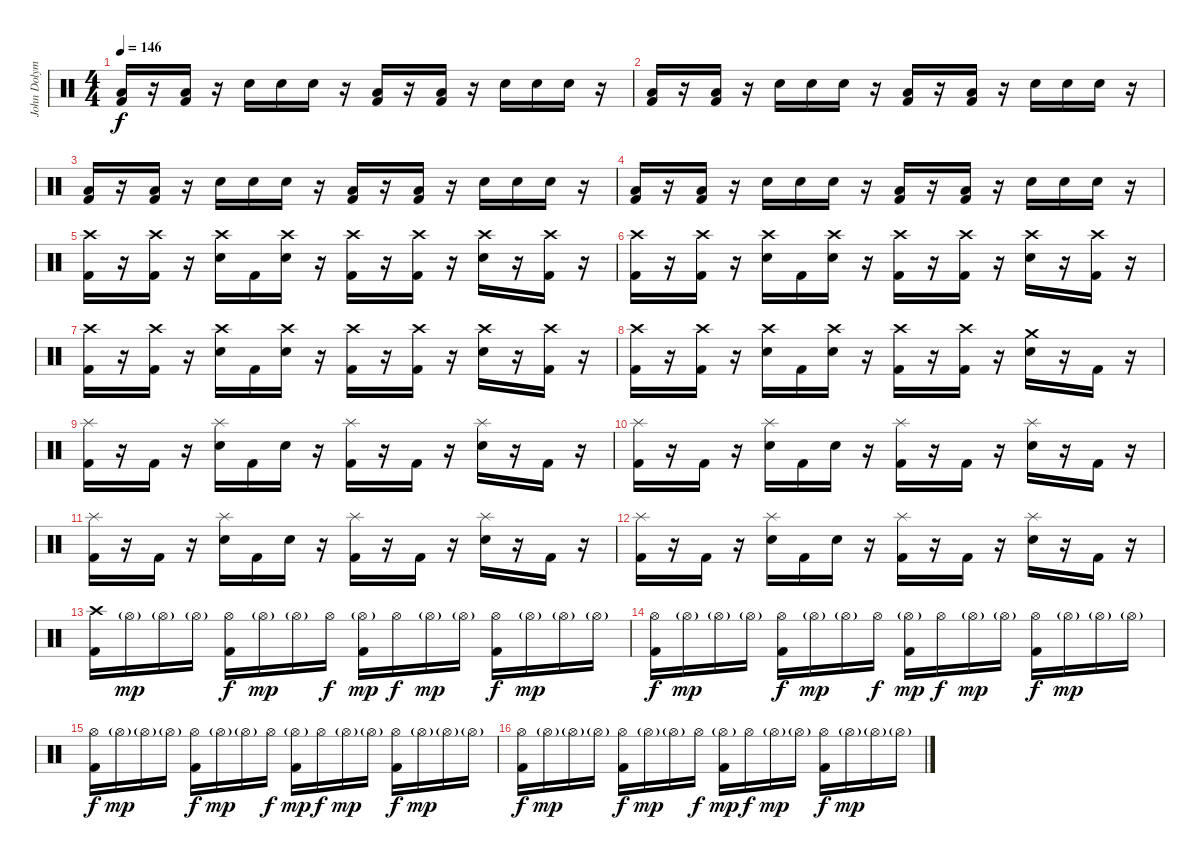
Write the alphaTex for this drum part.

\track ("John Dolyman" "John Dolym") {instrument percussion}
\staff {score}
\articulation defaults
\ts (4 4)
\tempo 146
\clef neutral
\ks c
("Low Floor Tom (hit)" "Kick (hit) 2").16{dy f} r.16 ("Low Floor Tom (hit)" "Kick (hit) 2").16 r.16 "Electric Snare (hit)".16 "Electric Snare (hit)".16 "Electric Snare (hit)".16 r.16 ("Low Floor Tom (hit)" "Kick (hit) 2").16 r.16 ("Low Floor Tom (hit)" "Kick (hit) 2").16 r.16 "Electric Snare (hit)".16 "Electric Snare (hit)".16 "Electric Snare (hit)".16 r.16 |
("Low Floor Tom (hit)" "Kick (hit) 2").16 r.16 ("Low Floor Tom (hit)" "Kick (hit) 2").16 r.16 "Electric Snare (hit)".16 "Electric Snare (hit)".16 "Electric Snare (hit)".16 r.16 ("Low Floor Tom (hit)" "Kick (hit) 2").16 r.16 ("Low Floor Tom (hit)" "Kick (hit) 2").16 r.16 "Electric Snare (hit)".16 "Electric Snare (hit)".16 "Electric Snare (hit)".16 r.16 |
("Low Floor Tom (hit)" "Kick (hit) 2").16 r.16 ("Low Floor Tom (hit)" "Kick (hit) 2").16 r.16 "Electric Snare (hit)".16 "Electric Snare (hit)".16 "Electric Snare (hit)".16 r.16 ("Low Floor Tom (hit)" "Kick (hit) 2").16 r.16 ("Low Floor Tom (hit)" "Kick (hit) 2").16 r.16 "Electric Snare (hit)".16 "Electric Snare (hit)".16 "Electric Snare (hit)".16 r.16 |
("Low Floor Tom (hit)" "Kick (hit) 2").16 r.16 ("Low Floor Tom (hit)" "Kick (hit) 2").16 r.16 "Electric Snare (hit)".16 "Electric Snare (hit)".16 "Electric Snare (hit)".16 r.16 ("Low Floor Tom (hit)" "Kick (hit) 2").16 r.16 ("Low Floor Tom (hit)" "Kick (hit) 2").16 r.16 "Electric Snare (hit)".16 "Electric Snare (hit)".16 "Electric Snare (hit)".16 r.16 |
("Crash high (hit)" "Kick (hit) 2").16 r.16 ("Crash high (hit)" "Kick (hit) 2").16 r.16 ("Crash high (hit)" "Electric Snare (hit)").16 "Kick (hit) 2".16 ("Crash high (hit)" "Electric Snare (hit)").16 r.16 ("Crash high (hit)" "Kick (hit) 2").16 r.16 ("Crash high (hit)" "Kick (hit) 2").16 r.16 ("Crash high (hit)" "Electric Snare (hit)").16 r.16 ("Crash high (hit)" "Kick (hit) 2").16 r.16 |
("Crash high (hit)" "Kick (hit) 2").16 r.16 ("Crash high (hit)" "Kick (hit) 2").16 r.16 ("Crash high (hit)" "Electric Snare (hit)").16 "Kick (hit) 2".16 ("Crash high (hit)" "Electric Snare (hit)").16 r.16 ("Crash high (hit)" "Kick (hit) 2").16 r.16 ("Crash high (hit)" "Kick (hit) 2").16 r.16 ("Crash high (hit)" "Electric Snare (hit)").16 r.16 ("Crash high (hit)" "Kick (hit) 2").16 r.16 |
("Crash high (hit)" "Kick (hit) 2").16 r.16 ("Crash high (hit)" "Kick (hit) 2").16 r.16 ("Crash high (hit)" "Electric Snare (hit)").16 "Kick (hit) 2".16 ("Crash high (hit)" "Electric Snare (hit)").16 r.16 ("Crash high (hit)" "Kick (hit) 2").16 r.16 ("Crash high (hit)" "Kick (hit) 2").16 r.16 ("Crash high (hit)" "Electric Snare (hit)").16 r.16 ("Crash high (hit)" "Kick (hit) 2").16 r.16 |
("Crash high (hit)" "Kick (hit) 2").16 r.16 ("Crash high (hit)" "Kick (hit) 2").16 r.16 ("Crash high (hit)" "Electric Snare (hit)").16 "Kick (hit) 2".16 ("Crash high (hit)" "Electric Snare (hit)").16 r.16 ("Crash high (hit)" "Kick (hit) 2").16 r.16 ("Crash high (hit)" "Kick (hit) 2").16 r.16 ("Crash medium (hit)" "Electric Snare (hit)").16 r.16 "Kick (hit) 2".16 r.16 |
("Splash (hit)" "Kick (hit) 2").16 r.16 "Kick (hit) 2".16 r.16 ("Splash (hit)" "Electric Snare (hit)").16 "Kick (hit) 2".16 "Electric Snare (hit)".16 r.16 ("Splash (hit)" "Kick (hit) 2").16 r.16 "Kick (hit) 2".16 r.16 ("Splash (hit)" "Electric Snare (hit)").16 r.16 "Kick (hit) 2".16 r.16 |
("Splash (hit)" "Kick (hit) 2").16 r.16 "Kick (hit) 2".16 r.16 ("Splash (hit)" "Electric Snare (hit)").16 "Kick (hit) 2".16 "Electric Snare (hit)".16 r.16 ("Splash (hit)" "Kick (hit) 2").16 r.16 "Kick (hit) 2".16 r.16 ("Splash (hit)" "Electric Snare (hit)").16 r.16 "Kick (hit) 2".16 r.16 |
("Splash (hit)" "Kick (hit) 2").16 r.16 "Kick (hit) 2".16 r.16 ("Splash (hit)" "Electric Snare (hit)").16 "Kick (hit) 2".16 "Electric Snare (hit)".16 r.16 ("Splash (hit)" "Kick (hit) 2").16 r.16 "Kick (hit) 2".16 r.16 ("Splash (hit)" "Electric Snare (hit)").16 r.16 "Kick (hit) 2".16 r.16 |
("Splash (hit)" "Kick (hit) 2").16 r.16 "Kick (hit) 2".16 r.16 ("Splash (hit)" "Electric Snare (hit)").16 "Kick (hit) 2".16 "Electric Snare (hit)".16 r.16 ("Splash (hit)" "Kick (hit) 2").16 r.16 "Kick (hit) 2".16 r.16 ("Splash (hit)" "Electric Snare (hit)").16 r.16 "Kick (hit) 2".16 r.16 |
("Crash high (hit)" "Kick (hit) 2").16 "Hi-Hat (open)"{g}.16{dy mp} "Hi-Hat (open)"{g}.16 "Hi-Hat (open)"{g}.16 ("Hi-Hat (open)" "Kick (hit) 2").16{dy f} "Hi-Hat (open)"{g}.16{dy mp} "Hi-Hat (open)"{g}.16 "Hi-Hat (open)".16{dy f} ("Hi-Hat (open)"{g} "Kick (hit) 2").16{dy mp} "Hi-Hat (open)".16{dy f} "Hi-Hat (open)"{g}.16{dy mp} "Hi-Hat (open)"{g}.16 ("Hi-Hat (open)" "Kick (hit) 2").16{dy f} "Hi-Hat (open)"{g}.16{dy mp} "Hi-Hat (open)"{g}.16 "Hi-Hat (open)"{g}.16 |
("Hi-Hat (open)" "Kick (hit) 2").16{dy f} "Hi-Hat (open)"{g}.16{dy mp} "Hi-Hat (open)"{g}.16 "Hi-Hat (open)"{g}.16 ("Hi-Hat (open)" "Kick (hit) 2").16{dy f} "Hi-Hat (open)"{g}.16{dy mp} "Hi-Hat (open)"{g}.16 "Hi-Hat (open)".16{dy f} ("Hi-Hat (open)"{g} "Kick (hit) 2").16{dy mp} "Hi-Hat (open)".16{dy f} "Hi-Hat (open)"{g}.16{dy mp} "Hi-Hat (open)"{g}.16 ("Hi-Hat (open)" "Kick (hit) 2").16{dy f} "Hi-Hat (open)"{g}.16{dy mp} "Hi-Hat (open)"{g}.16 "Hi-Hat (open)"{g}.16 |
("Hi-Hat (open)" "Kick (hit) 2").16{dy f} "Hi-Hat (open)"{g}.16{dy mp} "Hi-Hat (open)"{g}.16 "Hi-Hat (open)"{g}.16 ("Hi-Hat (open)" "Kick (hit) 2").16{dy f} "Hi-Hat (open)"{g}.16{dy mp} "Hi-Hat (open)"{g}.16 "Hi-Hat (open)".16{dy f} ("Hi-Hat (open)"{g} "Kick (hit) 2").16{dy mp} "Hi-Hat (open)".16{dy f} "Hi-Hat (open)"{g}.16{dy mp} "Hi-Hat (open)"{g}.16 ("Hi-Hat (open)" "Kick (hit) 2").16{dy f} "Hi-Hat (open)"{g}.16{dy mp} "Hi-Hat (open)"{g}.16 "Hi-Hat (open)"{g}.16 |
("Hi-Hat (open)" "Kick (hit) 2").16{dy f} "Hi-Hat (open)"{g}.16{dy mp} "Hi-Hat (open)"{g}.16 "Hi-Hat (open)"{g}.16 ("Hi-Hat (open)" "Kick (hit) 2").16{dy f} "Hi-Hat (open)"{g}.16{dy mp} "Hi-Hat (open)"{g}.16 "Hi-Hat (open)".16{dy f} ("Hi-Hat (open)"{g} "Kick (hit) 2").16{dy mp} "Hi-Hat (open)".16{dy f} "Hi-Hat (open)"{g}.16{dy mp} "Hi-Hat (open)"{g}.16 ("Hi-Hat (open)" "Kick (hit) 2").16{dy f} "Hi-Hat (open)"{g}.16{dy mp} "Hi-Hat (open)"{g}.16 "Hi-Hat (open)"{g}.16
